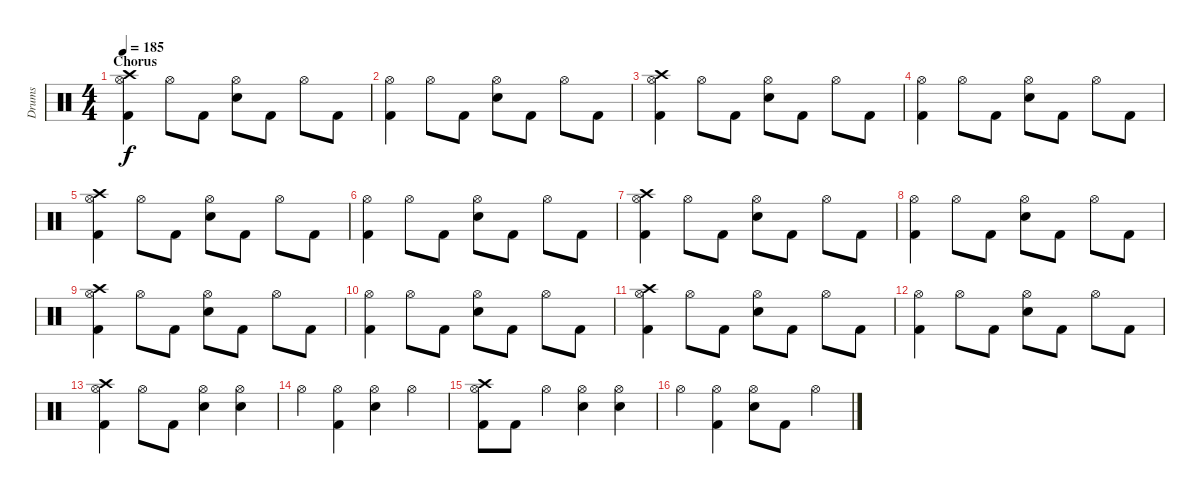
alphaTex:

\track ("Drums" "Drums") {instrument percussion}
\staff {score}
\articulation defaults
\ts (4 4)
\section ("" "Chorus")
\tempo 185
\clef neutral
\ks c
("Hi-Hat (open)" "Kick (hit) 2" "Crash high (hit)").4{dy f} "Hi-Hat (open)".8 "Kick (hit) 2".8 ("Hi-Hat (open)" "Electric Snare (hit)").8 "Kick (hit) 2".8 "Hi-Hat (open)".8 "Kick (hit) 2".8 |
("Hi-Hat (open)" "Kick (hit) 2").4 "Hi-Hat (open)".8 "Kick (hit) 2".8 ("Hi-Hat (open)" "Electric Snare (hit)").8 "Kick (hit) 2".8 "Hi-Hat (open)".8 "Kick (hit) 2".8 |
("Hi-Hat (open)" "Kick (hit) 2" "Crash high (hit)").4 "Hi-Hat (open)".8 "Kick (hit) 2".8 ("Hi-Hat (open)" "Electric Snare (hit)").8 "Kick (hit) 2".8 "Hi-Hat (open)".8 "Kick (hit) 2".8 |
("Hi-Hat (open)" "Kick (hit) 2").4 "Hi-Hat (open)".8 "Kick (hit) 2".8 ("Hi-Hat (open)" "Electric Snare (hit)").8 "Kick (hit) 2".8 "Hi-Hat (open)".8 "Kick (hit) 2".8 |
("Hi-Hat (open)" "Kick (hit) 2" "Crash high (hit)").4 "Hi-Hat (open)".8 "Kick (hit) 2".8 ("Hi-Hat (open)" "Electric Snare (hit)").8 "Kick (hit) 2".8 "Hi-Hat (open)".8 "Kick (hit) 2".8 |
("Hi-Hat (open)" "Kick (hit) 2").4 "Hi-Hat (open)".8 "Kick (hit) 2".8 ("Hi-Hat (open)" "Electric Snare (hit)").8 "Kick (hit) 2".8 "Hi-Hat (open)".8 "Kick (hit) 2".8 |
("Hi-Hat (open)" "Kick (hit) 2" "Crash high (hit)").4 "Hi-Hat (open)".8 "Kick (hit) 2".8 ("Hi-Hat (open)" "Electric Snare (hit)").8 "Kick (hit) 2".8 "Hi-Hat (open)".8 "Kick (hit) 2".8 |
("Hi-Hat (open)" "Kick (hit) 2").4 "Hi-Hat (open)".8 "Kick (hit) 2".8 ("Hi-Hat (open)" "Electric Snare (hit)").8 "Kick (hit) 2".8 "Hi-Hat (open)".8 "Kick (hit) 2".8 |
("Hi-Hat (open)" "Kick (hit) 2" "Crash high (hit)").4 "Hi-Hat (open)".8 "Kick (hit) 2".8 ("Hi-Hat (open)" "Electric Snare (hit)").8 "Kick (hit) 2".8 "Hi-Hat (open)".8 "Kick (hit) 2".8 |
("Hi-Hat (open)" "Kick (hit) 2").4 "Hi-Hat (open)".8 "Kick (hit) 2".8 ("Hi-Hat (open)" "Electric Snare (hit)").8 "Kick (hit) 2".8 "Hi-Hat (open)".8 "Kick (hit) 2".8 |
("Hi-Hat (open)" "Kick (hit) 2" "Crash high (hit)").4 "Hi-Hat (open)".8 "Kick (hit) 2".8 ("Hi-Hat (open)" "Electric Snare (hit)").8 "Kick (hit) 2".8 "Hi-Hat (open)".8 "Kick (hit) 2".8 |
("Hi-Hat (open)" "Kick (hit) 2").4 "Hi-Hat (open)".8 "Kick (hit) 2".8 ("Hi-Hat (open)" "Electric Snare (hit)").8 "Kick (hit) 2".8 "Hi-Hat (open)".8 "Kick (hit) 2".8 |
("Hi-Hat (open)" "Kick (hit) 2" "Crash high (hit)").4 "Hi-Hat (open)".8 "Kick (hit) 2".8 ("Hi-Hat (open)" "Electric Snare (hit)").4 ("Hi-Hat (open)" "Electric Snare (hit)").4 |
"Hi-Hat (open)".4 ("Hi-Hat (open)" "Kick (hit) 2").4 ("Hi-Hat (open)" "Electric Snare (hit)").4 "Hi-Hat (open)".4 |
("Hi-Hat (open)" "Kick (hit) 2" "Crash high (hit)").8 "Kick (hit) 2".8 "Hi-Hat (open)".4 ("Hi-Hat (open)" "Electric Snare (hit)").4 ("Hi-Hat (open)" "Electric Snare (hit)").4 |
"Hi-Hat (open)".4 ("Hi-Hat (open)" "Kick (hit) 2").4 ("Hi-Hat (open)" "Electric Snare (hit)").8 "Kick (hit) 2".8 "Hi-Hat (open)".4
